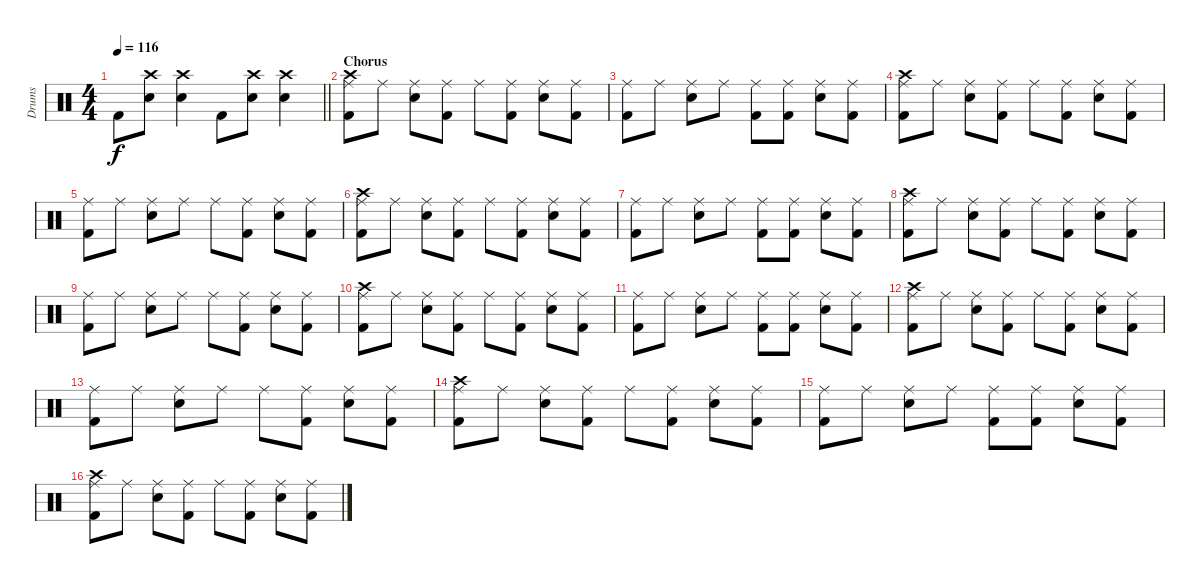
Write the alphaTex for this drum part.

\track ("Drums" "Drums") {instrument percussion}
\staff {score}
\articulation defaults
\ts (4 4)
\tempo 116
\clef neutral
\barLineRight lightlight
\ks c "Kick (hit) 2".8{dy f}
("Crash high (hit)" "Snare (hit) 2").8 ("Crash high (hit)" "Snare (hit) 2").4 "Kick (hit) 2".8 ("Crash high (hit)" "Snare (hit) 2").8 ("Crash high (hit)" "Snare (hit) 2").4 |
\section ("" "Chorus")
("Crash high (hit)" "Ride (middle)" "Kick (hit) 2").8 "Ride (middle)".8 ("Ride (middle)" "Snare (hit) 2").8 ("Ride (middle)" "Kick (hit) 2").8 "Ride (middle)".8 ("Ride (middle)" "Kick (hit) 2").8 ("Ride (middle)" "Snare (hit) 2").8 ("Ride (middle)" "Kick (hit) 2").8 |
("Ride (middle)" "Kick (hit) 2").8 "Ride (middle)".8 ("Ride (middle)" "Snare (hit) 2").8 "Ride (middle)".8 ("Ride (middle)" "Kick (hit) 2").8 ("Ride (middle)" "Kick (hit) 2").8 ("Ride (middle)" "Snare (hit) 2").8 ("Ride (middle)" "Kick (hit) 2").8 |
("Crash high (hit)" "Ride (middle)" "Kick (hit) 2").8 "Ride (middle)".8 ("Ride (middle)" "Snare (hit) 2").8 ("Ride (middle)" "Kick (hit) 2").8 "Ride (middle)".8 ("Ride (middle)" "Kick (hit) 2").8 ("Ride (middle)" "Snare (hit) 2").8 ("Ride (middle)" "Kick (hit) 2").8 |
("Ride (middle)" "Kick (hit) 2").8 "Ride (middle)".8 ("Ride (middle)" "Snare (hit) 2").8 "Ride (middle)".8 "Ride (middle)".8 ("Ride (middle)" "Kick (hit) 2").8 ("Ride (middle)" "Snare (hit) 2").8 ("Ride (middle)" "Kick (hit) 2").8 |
("Crash high (hit)" "Ride (middle)" "Kick (hit) 2").8 "Ride (middle)".8 ("Ride (middle)" "Snare (hit) 2").8 ("Ride (middle)" "Kick (hit) 2").8 "Ride (middle)".8 ("Ride (middle)" "Kick (hit) 2").8 ("Ride (middle)" "Snare (hit) 2").8 ("Ride (middle)" "Kick (hit) 2").8 |
("Ride (middle)" "Kick (hit) 2").8 "Ride (middle)".8 ("Ride (middle)" "Snare (hit) 2").8 "Ride (middle)".8 ("Ride (middle)" "Kick (hit) 2").8 ("Ride (middle)" "Kick (hit) 2").8 ("Ride (middle)" "Snare (hit) 2").8 ("Ride (middle)" "Kick (hit) 2").8 |
("Crash high (hit)" "Ride (middle)" "Kick (hit) 2").8 "Ride (middle)".8 ("Ride (middle)" "Snare (hit) 2").8 ("Ride (middle)" "Kick (hit) 2").8 "Ride (middle)".8 ("Ride (middle)" "Kick (hit) 2").8 ("Ride (middle)" "Snare (hit) 2").8 ("Ride (middle)" "Kick (hit) 2").8 |
("Ride (middle)" "Kick (hit) 2").8 "Ride (middle)".8 ("Ride (middle)" "Snare (hit) 2").8 "Ride (middle)".8 "Ride (middle)".8 ("Ride (middle)" "Kick (hit) 2").8 ("Ride (middle)" "Snare (hit) 2").8 ("Ride (middle)" "Kick (hit) 2").8 |
("Crash high (hit)" "Ride (middle)" "Kick (hit) 2").8 "Ride (middle)".8 ("Ride (middle)" "Snare (hit) 2").8 ("Ride (middle)" "Kick (hit) 2").8 "Ride (middle)".8 ("Ride (middle)" "Kick (hit) 2").8 ("Ride (middle)" "Snare (hit) 2").8 ("Ride (middle)" "Kick (hit) 2").8 |
("Ride (middle)" "Kick (hit) 2").8 "Ride (middle)".8 ("Ride (middle)" "Snare (hit) 2").8 "Ride (middle)".8 ("Ride (middle)" "Kick (hit) 2").8 ("Ride (middle)" "Kick (hit) 2").8 ("Ride (middle)" "Snare (hit) 2").8 ("Ride (middle)" "Kick (hit) 2").8 |
("Crash high (hit)" "Ride (middle)" "Kick (hit) 2").8 "Ride (middle)".8 ("Ride (middle)" "Snare (hit) 2").8 ("Ride (middle)" "Kick (hit) 2").8 "Ride (middle)".8 ("Ride (middle)" "Kick (hit) 2").8 ("Ride (middle)" "Snare (hit) 2").8 ("Ride (middle)" "Kick (hit) 2").8 |
("Ride (middle)" "Kick (hit) 2").8 "Ride (middle)".8 ("Ride (middle)" "Snare (hit) 2").8 "Ride (middle)".8 "Ride (middle)".8 ("Ride (middle)" "Kick (hit) 2").8 ("Ride (middle)" "Snare (hit) 2").8 ("Ride (middle)" "Kick (hit) 2").8 |
("Crash high (hit)" "Ride (middle)" "Kick (hit) 2").8 "Ride (middle)".8 ("Ride (middle)" "Snare (hit) 2").8 ("Ride (middle)" "Kick (hit) 2").8 "Ride (middle)".8 ("Ride (middle)" "Kick (hit) 2").8 ("Ride (middle)" "Snare (hit) 2").8 ("Ride (middle)" "Kick (hit) 2").8 |
("Ride (middle)" "Kick (hit) 2").8 "Ride (middle)".8 ("Ride (middle)" "Snare (hit) 2").8 "Ride (middle)".8 ("Ride (middle)" "Kick (hit) 2").8 ("Ride (middle)" "Kick (hit) 2").8 ("Ride (middle)" "Snare (hit) 2").8 ("Ride (middle)" "Kick (hit) 2").8 |
("Crash high (hit)" "Ride (middle)" "Kick (hit) 2").8 "Ride (middle)".8 ("Ride (middle)" "Snare (hit) 2").8 ("Ride (middle)" "Kick (hit) 2").8 "Ride (middle)".8 ("Ride (middle)" "Kick (hit) 2").8 ("Ride (middle)" "Snare (hit) 2").8 ("Ride (middle)" "Kick (hit) 2").8
